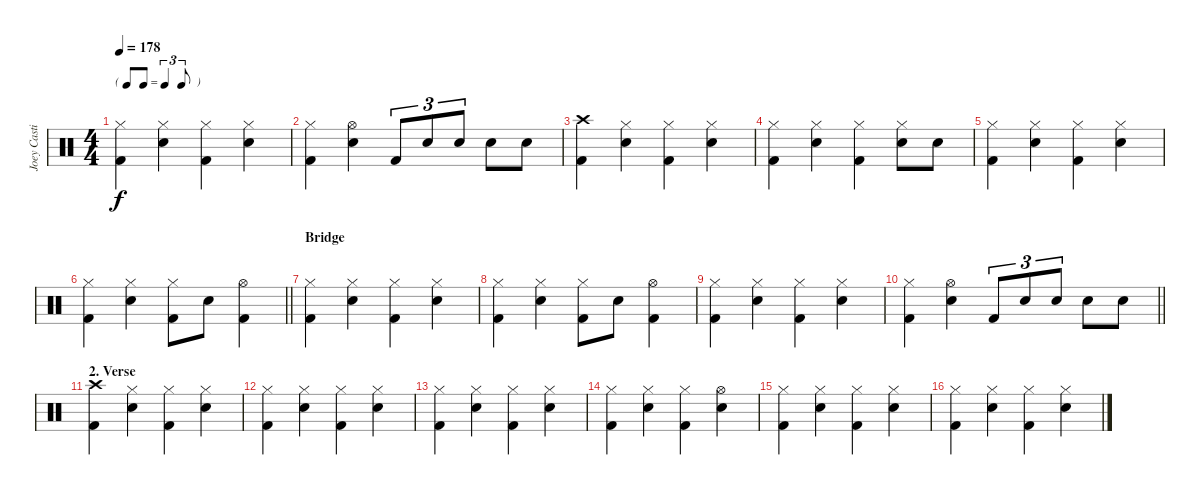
\track ("Joey Castillo" "Joey Casti") {instrument percussion}
\staff {score}
\articulation defaults
\ts (4 4)
\tf triplet8th
\tempo 178
\clef neutral
\ks c
("Hi-Hat (closed)" "Kick (hit) 2").4{dy f} ("Hi-Hat (closed)" "Snare (hit) 2").4 ("Hi-Hat (closed)" "Kick (hit) 2").4 ("Hi-Hat (closed)" "Snare (hit) 2").4 |
("Hi-Hat (closed)" "Kick (hit) 2").4 ("Hi-Hat (open)" "Snare (hit) 2").4 "Kick (hit) 2".8{tu (3 2)} "Snare (hit) 2".8{tu (3 2)} "Snare (hit) 2".8{tu (3 2)} "Snare (hit) 2".8 "Snare (hit) 2".8 |
("Crash high (hit)" "Kick (hit) 2").4 ("Hi-Hat (closed)" "Snare (hit) 2").4 ("Hi-Hat (closed)" "Kick (hit) 2").4 ("Hi-Hat (closed)" "Snare (hit) 2").4 |
("Hi-Hat (closed)" "Kick (hit) 2").4 ("Hi-Hat (closed)" "Snare (hit) 2").4 ("Hi-Hat (closed)" "Kick (hit) 2").4 ("Hi-Hat (closed)" "Snare (hit) 2").8 "Snare (hit) 2".8 |
("Hi-Hat (closed)" "Kick (hit) 2").4 ("Hi-Hat (closed)" "Snare (hit) 2").4 ("Hi-Hat (closed)" "Kick (hit) 2").4 ("Hi-Hat (closed)" "Snare (hit) 2").4 |
\barLineRight lightlight
("Hi-Hat (closed)" "Kick (hit) 2").4 ("Hi-Hat (closed)" "Snare (hit) 2").4 ("Hi-Hat (closed)" "Kick (hit) 2").8 "Snare (hit) 2".8 ("Hi-Hat (open)" "Kick (hit) 2").4 |
\section ("" "Bridge")
("Hi-Hat (closed)" "Kick (hit) 2").4 ("Hi-Hat (closed)" "Snare (hit) 2").4 ("Hi-Hat (closed)" "Kick (hit) 2").4 ("Hi-Hat (closed)" "Snare (hit) 2").4 |
("Hi-Hat (closed)" "Kick (hit) 2").4 ("Hi-Hat (closed)" "Snare (hit) 2").4 ("Hi-Hat (closed)" "Kick (hit) 2").8 "Snare (hit) 2".8 ("Hi-Hat (open)" "Kick (hit) 2").4 |
("Hi-Hat (closed)" "Kick (hit) 2").4 ("Hi-Hat (closed)" "Snare (hit) 2").4 ("Hi-Hat (closed)" "Kick (hit) 2").4 ("Hi-Hat (closed)" "Snare (hit) 2").4 |
\barLineRight lightlight
("Hi-Hat (closed)" "Kick (hit) 2").4 ("Hi-Hat (open)" "Snare (hit) 2").4 "Kick (hit) 2".8{tu (3 2)} "Snare (hit) 2".8{tu (3 2)} "Snare (hit) 2".8{tu (3 2)} "Snare (hit) 2".8 "Snare (hit) 2".8 |
\section ("" "2. Verse")
("Crash high (hit)" "Kick (hit) 2").4 ("Hi-Hat (closed)" "Snare (hit) 2").4 ("Hi-Hat (closed)" "Kick (hit) 2").4 ("Hi-Hat (closed)" "Snare (hit) 2").4 |
("Hi-Hat (closed)" "Kick (hit) 2").4 ("Hi-Hat (closed)" "Snare (hit) 2").4 ("Hi-Hat (closed)" "Kick (hit) 2").4 ("Hi-Hat (closed)" "Snare (hit) 2").4 |
("Hi-Hat (closed)" "Kick (hit) 2").4 ("Hi-Hat (closed)" "Snare (hit) 2").4 ("Hi-Hat (closed)" "Kick (hit) 2").4 ("Hi-Hat (closed)" "Snare (hit) 2").4 |
("Hi-Hat (closed)" "Kick (hit) 2").4 ("Hi-Hat (closed)" "Snare (hit) 2").4 ("Hi-Hat (closed)" "Kick (hit) 2").4 ("Hi-Hat (open)" "Snare (hit) 2").4 |
("Hi-Hat (closed)" "Kick (hit) 2").4 ("Hi-Hat (closed)" "Snare (hit) 2").4 ("Hi-Hat (closed)" "Kick (hit) 2").4 ("Hi-Hat (closed)" "Snare (hit) 2").4 |
("Hi-Hat (closed)" "Kick (hit) 2").4 ("Hi-Hat (closed)" "Snare (hit) 2").4 ("Hi-Hat (closed)" "Kick (hit) 2").4 ("Hi-Hat (closed)" "Snare (hit) 2").4
